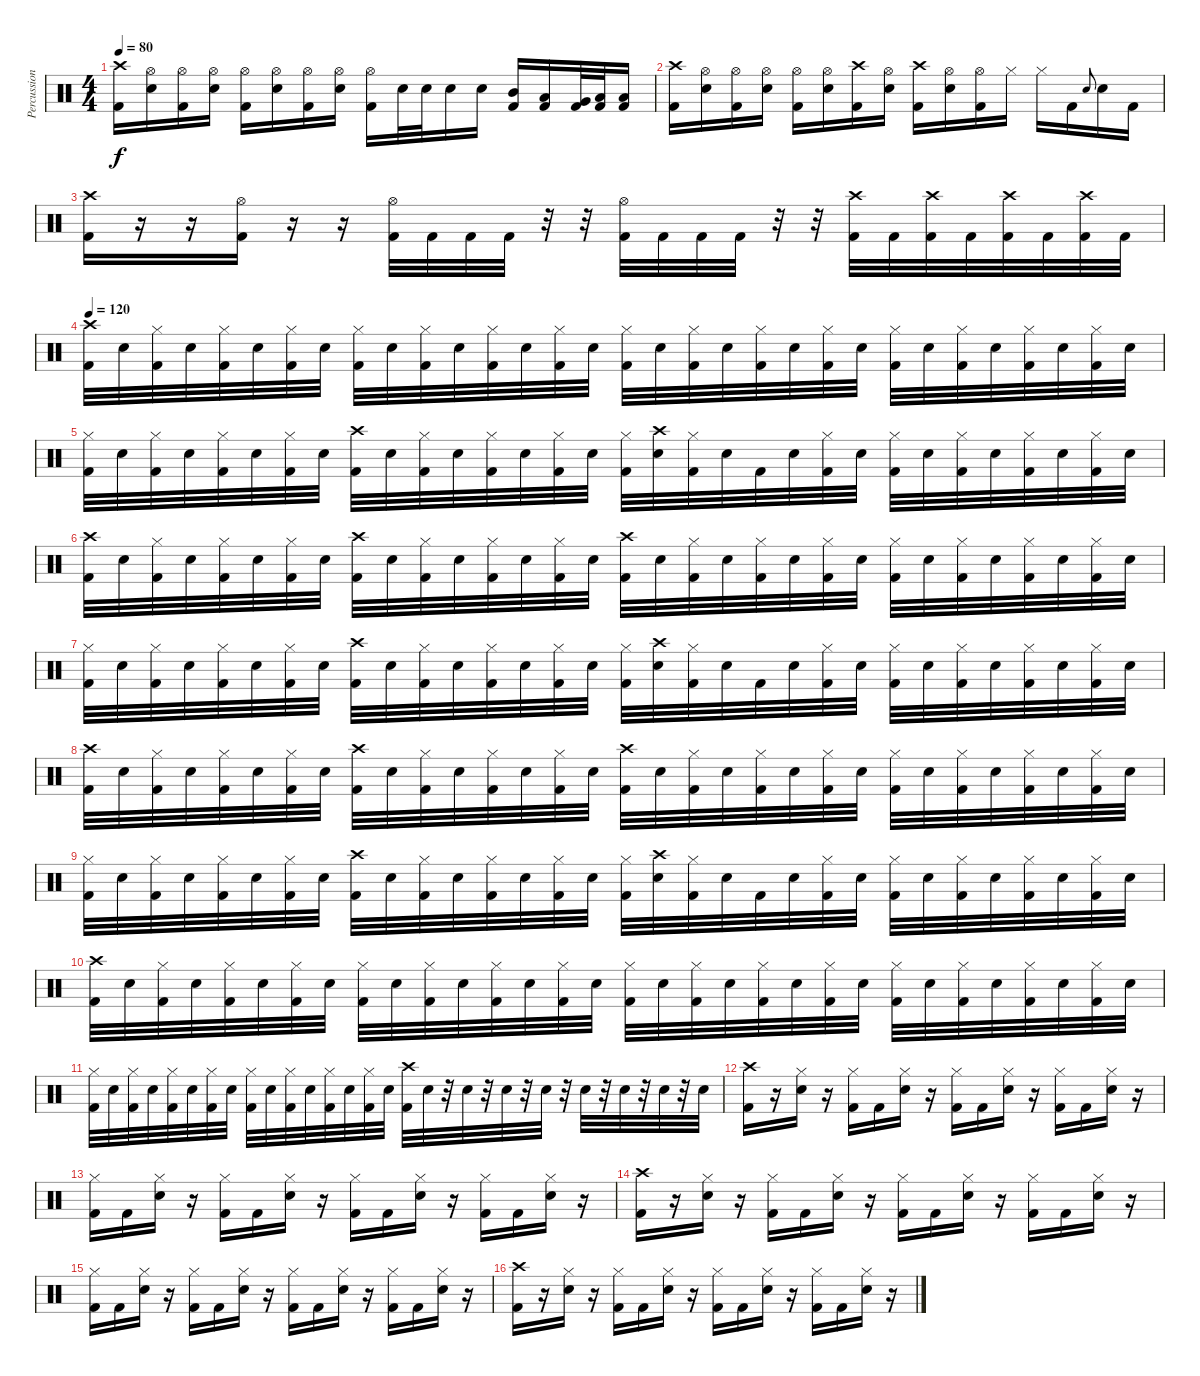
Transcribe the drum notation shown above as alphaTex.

\track ("Percussion" "Percussion") {instrument percussion}
\staff {score}
\articulation defaults
\ts (4 4)
\tempo 80
\clef neutral
\ks c
("Crash high (hit)" "Kick (hit) 2").16{dy f} ("Hi-Hat (open)" "Snare (hit) 2").16 ("Hi-Hat (open)" "Kick (hit) 2").16 ("Hi-Hat (open)" "Snare (hit) 2").16 ("Hi-Hat (open)" "Kick (hit) 2").16 ("Hi-Hat (open)" "Snare (hit) 2").16 ("Hi-Hat (open)" "Kick (hit) 2").16 ("Hi-Hat (open)" "Snare (hit) 2").16 ("Hi-Hat (open)" "Kick (hit) 2").16 "Snare (hit) 2".32 "Snare (hit) 2".32 "Snare (hit) 2".16 "Snare (hit) 2".16 ("Mid Tom (hit)" "Kick (hit) 2").16 ("Low Tom (hit)" "Kick (hit) 2").16 ("Very Low Tom (hit)" "Kick (hit) 2").32 ("Low Floor Tom (hit)" "Kick (hit) 2").32 ("Low Floor Tom (hit)" "Kick (hit) 2").16 |
("Crash high (hit)" "Kick (hit) 2").16 ("Hi-Hat (open)" "Snare (hit) 2").16 ("Hi-Hat (open)" "Kick (hit) 2").16 ("Hi-Hat (open)" "Snare (hit) 2").16 ("Hi-Hat (open)" "Kick (hit) 2").16 ("Hi-Hat (open)" "Snare (hit) 2").16 ("Crash high (hit)" "Kick (hit) 2").16 ("Hi-Hat (open)" "Snare (hit) 2").16 ("Crash high (hit)" "Kick (hit) 2").16 ("Hi-Hat (open)" "Snare (hit) 2").16 ("Hi-Hat (open)" "Kick (hit) 2").16 "Hi-Hat (closed)".16 "Hi-Hat (closed)".16 "Kick (hit) 2".16 "Snare (hit) 2".8{gr onbeat} "Snare (hit) 2".16 "Kick (hit) 2".16 |
("Crash high (hit)" "Kick (hit) 2").16 r.16 r.16 ("Hi-Hat (open)" "Kick (hit) 2").16 r.16 r.16 ("Hi-Hat (open)" "Kick (hit) 2").32 "Kick (hit) 2".32 "Kick (hit) 2".32 "Kick (hit) 2".32 r.32 r.32 ("Hi-Hat (open)" "Kick (hit) 2").32 "Kick (hit) 2".32 "Kick (hit) 2".32 "Kick (hit) 2".32 r.32 r.32 ("Crash high (hit)" "Kick (hit) 2").32 "Kick (hit) 2".32 ("Crash high (hit)" "Kick (hit) 2").32 "Kick (hit) 2".32 ("Crash high (hit)" "Kick (hit) 2").32 "Kick (hit) 2".32 ("Crash high (hit)" "Kick (hit) 2").32 "Kick (hit) 2".32 |
\tempo 120
("Crash high (hit)" "Kick (hit) 2").32 "Snare (hit) 2".32 ("Hi-Hat (closed)" "Kick (hit) 2").32 "Snare (hit) 2".32 ("Hi-Hat (closed)" "Kick (hit) 2").32 "Snare (hit) 2".32 ("Hi-Hat (closed)" "Kick (hit) 2").32 "Snare (hit) 2".32 ("Hi-Hat (closed)" "Kick (hit) 2").32 "Snare (hit) 2".32 ("Hi-Hat (closed)" "Kick (hit) 2").32 "Snare (hit) 2".32 ("Hi-Hat (closed)" "Kick (hit) 2").32 "Snare (hit) 2".32 ("Hi-Hat (closed)" "Kick (hit) 2").32 "Snare (hit) 2".32 ("Hi-Hat (closed)" "Kick (hit) 2").32 "Snare (hit) 2".32 ("Hi-Hat (closed)" "Kick (hit) 2").32 "Snare (hit) 2".32 ("Hi-Hat (closed)" "Kick (hit) 2").32 "Snare (hit) 2".32 ("Hi-Hat (closed)" "Kick (hit) 2").32 "Snare (hit) 2".32 ("Hi-Hat (closed)" "Kick (hit) 2").32 "Snare (hit) 2".32 ("Hi-Hat (closed)" "Kick (hit) 2").32 "Snare (hit) 2".32 ("Hi-Hat (closed)" "Kick (hit) 2").32 "Snare (hit) 2".32 ("Hi-Hat (closed)" "Kick (hit) 2").32 "Snare (hit) 2".32 |
("Hi-Hat (closed)" "Kick (hit) 2").32 "Snare (hit) 2".32 ("Hi-Hat (closed)" "Kick (hit) 2").32 "Snare (hit) 2".32 ("Hi-Hat (closed)" "Kick (hit) 2").32 "Snare (hit) 2".32 ("Hi-Hat (closed)" "Kick (hit) 2").32 "Snare (hit) 2".32 ("Crash high (hit)" "Kick (hit) 2").32 "Snare (hit) 2".32 ("Hi-Hat (closed)" "Kick (hit) 2").32 "Snare (hit) 2".32 ("Hi-Hat (closed)" "Kick (hit) 2").32 "Snare (hit) 2".32 ("Hi-Hat (closed)" "Kick (hit) 2").32 "Snare (hit) 2".32 ("Hi-Hat (closed)" "Kick (hit) 2").32 ("Crash high (hit)" "Snare (hit) 2").32 ("Hi-Hat (closed)" "Kick (hit) 2").32 "Snare (hit) 2".32 "Kick (hit) 2".32 "Snare (hit) 2".32 ("Hi-Hat (closed)" "Kick (hit) 2").32 "Snare (hit) 2".32 ("Hi-Hat (closed)" "Kick (hit) 2").32 "Snare (hit) 2".32 ("Hi-Hat (closed)" "Kick (hit) 2").32 "Snare (hit) 2".32 ("Hi-Hat (closed)" "Kick (hit) 2").32 "Snare (hit) 2".32 ("Hi-Hat (closed)" "Kick (hit) 2").32 "Snare (hit) 2".32 |
("Crash high (hit)" "Kick (hit) 2").32 "Snare (hit) 2".32 ("Hi-Hat (closed)" "Kick (hit) 2").32 "Snare (hit) 2".32 ("Hi-Hat (closed)" "Kick (hit) 2").32 "Snare (hit) 2".32 ("Hi-Hat (closed)" "Kick (hit) 2").32 "Snare (hit) 2".32 ("Crash high (hit)" "Kick (hit) 2").32 "Snare (hit) 2".32 ("Hi-Hat (closed)" "Kick (hit) 2").32 "Snare (hit) 2".32 ("Hi-Hat (closed)" "Kick (hit) 2").32 "Snare (hit) 2".32 ("Hi-Hat (closed)" "Kick (hit) 2").32 "Snare (hit) 2".32 ("Crash high (hit)" "Kick (hit) 2").32 "Snare (hit) 2".32 ("Hi-Hat (closed)" "Kick (hit) 2").32 "Snare (hit) 2".32 ("Hi-Hat (closed)" "Kick (hit) 2").32 "Snare (hit) 2".32 ("Hi-Hat (closed)" "Kick (hit) 2").32 "Snare (hit) 2".32 ("Hi-Hat (closed)" "Kick (hit) 2").32 "Snare (hit) 2".32 ("Hi-Hat (closed)" "Kick (hit) 2").32 "Snare (hit) 2".32 ("Hi-Hat (closed)" "Kick (hit) 2").32 "Snare (hit) 2".32 ("Hi-Hat (closed)" "Kick (hit) 2").32 "Snare (hit) 2".32 |
("Hi-Hat (closed)" "Kick (hit) 2").32 "Snare (hit) 2".32 ("Hi-Hat (closed)" "Kick (hit) 2").32 "Snare (hit) 2".32 ("Hi-Hat (closed)" "Kick (hit) 2").32 "Snare (hit) 2".32 ("Hi-Hat (closed)" "Kick (hit) 2").32 "Snare (hit) 2".32 ("Crash high (hit)" "Kick (hit) 2").32 "Snare (hit) 2".32 ("Hi-Hat (closed)" "Kick (hit) 2").32 "Snare (hit) 2".32 ("Hi-Hat (closed)" "Kick (hit) 2").32 "Snare (hit) 2".32 ("Hi-Hat (closed)" "Kick (hit) 2").32 "Snare (hit) 2".32 ("Hi-Hat (closed)" "Kick (hit) 2").32 ("Crash high (hit)" "Snare (hit) 2").32 ("Hi-Hat (closed)" "Kick (hit) 2").32 "Snare (hit) 2".32 "Kick (hit) 2".32 "Snare (hit) 2".32 ("Hi-Hat (closed)" "Kick (hit) 2").32 "Snare (hit) 2".32 ("Hi-Hat (closed)" "Kick (hit) 2").32 "Snare (hit) 2".32 ("Hi-Hat (closed)" "Kick (hit) 2").32 "Snare (hit) 2".32 ("Hi-Hat (closed)" "Kick (hit) 2").32 "Snare (hit) 2".32 ("Hi-Hat (closed)" "Kick (hit) 2").32 "Snare (hit) 2".32 |
("Crash high (hit)" "Kick (hit) 2").32 "Snare (hit) 2".32 ("Hi-Hat (closed)" "Kick (hit) 2").32 "Snare (hit) 2".32 ("Hi-Hat (closed)" "Kick (hit) 2").32 "Snare (hit) 2".32 ("Hi-Hat (closed)" "Kick (hit) 2").32 "Snare (hit) 2".32 ("Crash high (hit)" "Kick (hit) 2").32 "Snare (hit) 2".32 ("Hi-Hat (closed)" "Kick (hit) 2").32 "Snare (hit) 2".32 ("Hi-Hat (closed)" "Kick (hit) 2").32 "Snare (hit) 2".32 ("Hi-Hat (closed)" "Kick (hit) 2").32 "Snare (hit) 2".32 ("Crash high (hit)" "Kick (hit) 2").32 "Snare (hit) 2".32 ("Hi-Hat (closed)" "Kick (hit) 2").32 "Snare (hit) 2".32 ("Hi-Hat (closed)" "Kick (hit) 2").32 "Snare (hit) 2".32 ("Hi-Hat (closed)" "Kick (hit) 2").32 "Snare (hit) 2".32 ("Hi-Hat (closed)" "Kick (hit) 2").32 "Snare (hit) 2".32 ("Hi-Hat (closed)" "Kick (hit) 2").32 "Snare (hit) 2".32 ("Hi-Hat (closed)" "Kick (hit) 2").32 "Snare (hit) 2".32 ("Hi-Hat (closed)" "Kick (hit) 2").32 "Snare (hit) 2".32 |
("Hi-Hat (closed)" "Kick (hit) 2").32 "Snare (hit) 2".32 ("Hi-Hat (closed)" "Kick (hit) 2").32 "Snare (hit) 2".32 ("Hi-Hat (closed)" "Kick (hit) 2").32 "Snare (hit) 2".32 ("Hi-Hat (closed)" "Kick (hit) 2").32 "Snare (hit) 2".32 ("Crash high (hit)" "Kick (hit) 2").32 "Snare (hit) 2".32 ("Hi-Hat (closed)" "Kick (hit) 2").32 "Snare (hit) 2".32 ("Hi-Hat (closed)" "Kick (hit) 2").32 "Snare (hit) 2".32 ("Hi-Hat (closed)" "Kick (hit) 2").32 "Snare (hit) 2".32 ("Hi-Hat (closed)" "Kick (hit) 2").32 ("Crash high (hit)" "Snare (hit) 2").32 ("Hi-Hat (closed)" "Kick (hit) 2").32 "Snare (hit) 2".32 "Kick (hit) 2".32 "Snare (hit) 2".32 ("Hi-Hat (closed)" "Kick (hit) 2").32 "Snare (hit) 2".32 ("Hi-Hat (closed)" "Kick (hit) 2").32 "Snare (hit) 2".32 ("Hi-Hat (closed)" "Kick (hit) 2").32 "Snare (hit) 2".32 ("Hi-Hat (closed)" "Kick (hit) 2").32 "Snare (hit) 2".32 ("Hi-Hat (closed)" "Kick (hit) 2").32 "Snare (hit) 2".32 |
("Crash high (hit)" "Kick (hit) 2").32 "Snare (hit) 2".32 ("Hi-Hat (closed)" "Kick (hit) 2").32 "Snare (hit) 2".32 ("Hi-Hat (closed)" "Kick (hit) 2").32 "Snare (hit) 2".32 ("Hi-Hat (closed)" "Kick (hit) 2").32 "Snare (hit) 2".32 ("Hi-Hat (closed)" "Kick (hit) 2").32 "Snare (hit) 2".32 ("Hi-Hat (closed)" "Kick (hit) 2").32 "Snare (hit) 2".32 ("Hi-Hat (closed)" "Kick (hit) 2").32 "Snare (hit) 2".32 ("Hi-Hat (closed)" "Kick (hit) 2").32 "Snare (hit) 2".32 ("Hi-Hat (closed)" "Kick (hit) 2").32 "Snare (hit) 2".32 ("Hi-Hat (closed)" "Kick (hit) 2").32 "Snare (hit) 2".32 ("Hi-Hat (closed)" "Kick (hit) 2").32 "Snare (hit) 2".32 ("Hi-Hat (closed)" "Kick (hit) 2").32 "Snare (hit) 2".32 ("Hi-Hat (closed)" "Kick (hit) 2").32 "Snare (hit) 2".32 ("Hi-Hat (closed)" "Kick (hit) 2").32 "Snare (hit) 2".32 ("Hi-Hat (closed)" "Kick (hit) 2").32 "Snare (hit) 2".32 ("Hi-Hat (closed)" "Kick (hit) 2").32 "Snare (hit) 2".32 |
("Hi-Hat (closed)" "Kick (hit) 2").32 "Snare (hit) 2".32 ("Hi-Hat (closed)" "Kick (hit) 2").32 "Snare (hit) 2".32 ("Hi-Hat (closed)" "Kick (hit) 2").32 "Snare (hit) 2".32 ("Hi-Hat (closed)" "Kick (hit) 2").32 "Snare (hit) 2".32 ("Hi-Hat (closed)" "Kick (hit) 2").32 "Snare (hit) 2".32 ("Hi-Hat (closed)" "Kick (hit) 2").32 "Snare (hit) 2".32 ("Hi-Hat (closed)" "Kick (hit) 2").32 "Snare (hit) 2".32 ("Hi-Hat (closed)" "Kick (hit) 2").32 "Snare (hit) 2".32 ("Crash high (hit)" "Kick (hit) 2").32 "Snare (hit) 2".32 r.32 "Snare (hit) 2".32 r.32 "Snare (hit) 2".32 r.32 "Snare (hit) 2".32 r.32 "Snare (hit) 2".32 r.32 "Snare (hit) 2".32 r.32 "Snare (hit) 2".32 r.32 "Snare (hit) 2".32 |
("Kick (hit) 2" "Crash high (hit)").16 r.16 ("Hi-Hat (closed)" "Snare (hit) 2").16 r.16 ("Kick (hit) 2" "Hi-Hat (closed)").16 "Kick (hit) 2".16 ("Snare (hit) 2" "Hi-Hat (closed)").16 r.16 ("Kick (hit) 2" "Hi-Hat (closed)").16 "Kick (hit) 2".16 ("Snare (hit) 2" "Hi-Hat (closed)").16 r.16 ("Kick (hit) 2" "Hi-Hat (closed)").16 "Kick (hit) 2".16 ("Snare (hit) 2" "Hi-Hat (closed)").16 r.16 |
("Kick (hit) 2" "Hi-Hat (closed)").16 "Kick (hit) 2".16 ("Snare (hit) 2" "Hi-Hat (closed)").16 r.16 ("Kick (hit) 2" "Hi-Hat (closed)").16 "Kick (hit) 2".16 ("Snare (hit) 2" "Hi-Hat (closed)").16 r.16 ("Kick (hit) 2" "Hi-Hat (closed)").16 "Kick (hit) 2".16 ("Snare (hit) 2" "Hi-Hat (closed)").16 r.16 ("Kick (hit) 2" "Hi-Hat (closed)").16 "Kick (hit) 2".16 ("Snare (hit) 2" "Hi-Hat (closed)").16 r.16 |
("Kick (hit) 2" "Crash high (hit)").16 r.16 ("Hi-Hat (closed)" "Snare (hit) 2").16 r.16 ("Kick (hit) 2" "Hi-Hat (closed)").16 "Kick (hit) 2".16 ("Snare (hit) 2" "Hi-Hat (closed)").16 r.16 ("Kick (hit) 2" "Hi-Hat (closed)").16 "Kick (hit) 2".16 ("Snare (hit) 2" "Hi-Hat (closed)").16 r.16 ("Kick (hit) 2" "Hi-Hat (closed)").16 "Kick (hit) 2".16 ("Snare (hit) 2" "Hi-Hat (closed)").16 r.16 |
("Kick (hit) 2" "Hi-Hat (closed)").16 "Kick (hit) 2".16 ("Snare (hit) 2" "Hi-Hat (closed)").16 r.16 ("Kick (hit) 2" "Hi-Hat (closed)").16 "Kick (hit) 2".16 ("Snare (hit) 2" "Hi-Hat (closed)").16 r.16 ("Kick (hit) 2" "Hi-Hat (closed)").16 "Kick (hit) 2".16 ("Snare (hit) 2" "Hi-Hat (closed)").16 r.16 ("Kick (hit) 2" "Hi-Hat (closed)").16 "Kick (hit) 2".16 ("Snare (hit) 2" "Hi-Hat (closed)").16 r.16 |
("Kick (hit) 2" "Crash high (hit)").16 r.16 ("Hi-Hat (closed)" "Snare (hit) 2").16 r.16 ("Kick (hit) 2" "Hi-Hat (closed)").16 "Kick (hit) 2".16 ("Snare (hit) 2" "Hi-Hat (closed)").16 r.16 ("Kick (hit) 2" "Hi-Hat (closed)").16 "Kick (hit) 2".16 ("Snare (hit) 2" "Hi-Hat (closed)").16 r.16 ("Kick (hit) 2" "Hi-Hat (closed)").16 "Kick (hit) 2".16 ("Snare (hit) 2" "Hi-Hat (closed)").16 r.16
